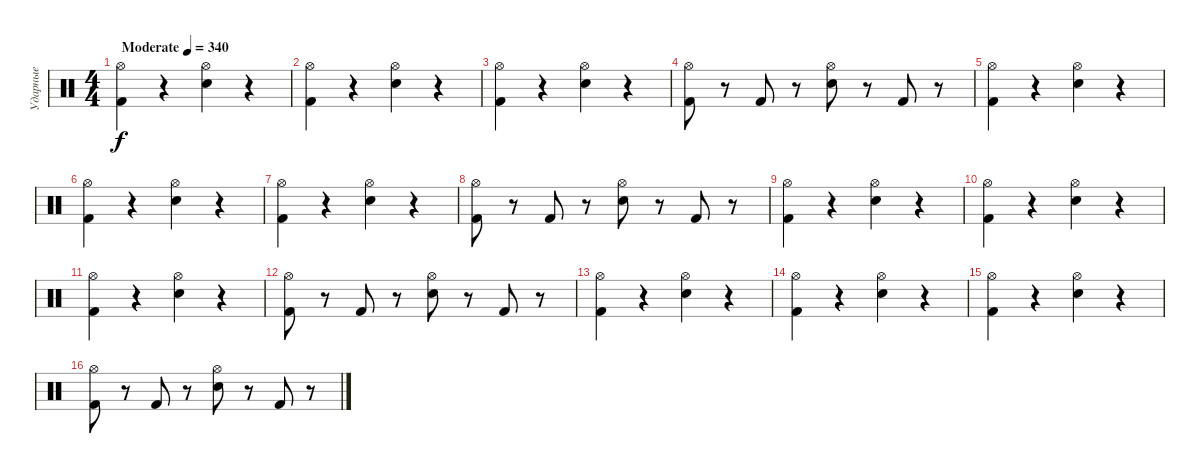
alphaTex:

\track ("Ударные" "Ударные") {instrument percussion}
\staff {score}
\articulation defaults
\ts (4 4)
\tempo (340 "Moderate")
\clef neutral
\ks c
("Kick (hit) 2" "Hi-Hat (open)").4{dy f} r.4 ("Electric Snare (hit)" "Hi-Hat (open)").4 r.4 |
("Kick (hit) 2" "Hi-Hat (open)").4 r.4 ("Electric Snare (hit)" "Hi-Hat (open)").4 r.4 |
("Kick (hit) 2" "Hi-Hat (open)").4 r.4 ("Electric Snare (hit)" "Hi-Hat (open)").4 r.4 |
("Kick (hit) 2" "Hi-Hat (open)").8 r.8 "Kick (hit) 2".8 r.8 ("Electric Snare (hit)" "Hi-Hat (open)").8 r.8 "Kick (hit) 2".8 r.8 |
("Kick (hit) 2" "Hi-Hat (open)").4 r.4 ("Electric Snare (hit)" "Hi-Hat (open)").4 r.4 |
("Kick (hit) 2" "Hi-Hat (open)").4 r.4 ("Electric Snare (hit)" "Hi-Hat (open)").4 r.4 |
("Kick (hit) 2" "Hi-Hat (open)").4 r.4 ("Electric Snare (hit)" "Hi-Hat (open)").4 r.4 |
("Kick (hit) 2" "Hi-Hat (open)").8 r.8 "Kick (hit) 2".8 r.8 ("Electric Snare (hit)" "Hi-Hat (open)").8 r.8 "Kick (hit) 2".8 r.8 |
("Kick (hit) 2" "Hi-Hat (open)").4 r.4 ("Electric Snare (hit)" "Hi-Hat (open)").4 r.4 |
("Kick (hit) 2" "Hi-Hat (open)").4 r.4 ("Electric Snare (hit)" "Hi-Hat (open)").4 r.4 |
("Kick (hit) 2" "Hi-Hat (open)").4 r.4 ("Electric Snare (hit)" "Hi-Hat (open)").4 r.4 |
("Kick (hit) 2" "Hi-Hat (open)").8 r.8 "Kick (hit) 2".8 r.8 ("Electric Snare (hit)" "Hi-Hat (open)").8 r.8 "Kick (hit) 2".8 r.8 |
("Kick (hit) 2" "Hi-Hat (open)").4 r.4 ("Electric Snare (hit)" "Hi-Hat (open)").4 r.4 |
("Kick (hit) 2" "Hi-Hat (open)").4 r.4 ("Electric Snare (hit)" "Hi-Hat (open)").4 r.4 |
("Kick (hit) 2" "Hi-Hat (open)").4 r.4 ("Electric Snare (hit)" "Hi-Hat (open)").4 r.4 |
("Kick (hit) 2" "Hi-Hat (open)").8 r.8 "Kick (hit) 2".8 r.8 ("Electric Snare (hit)" "Hi-Hat (open)").8 r.8 "Kick (hit) 2".8 r.8
